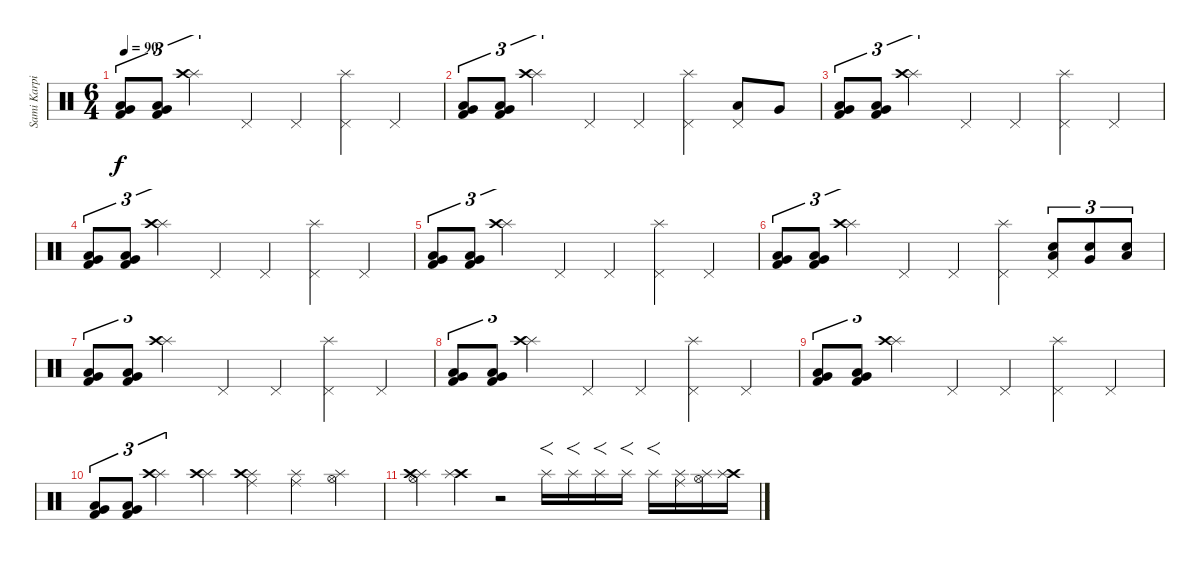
\track ("Sami Karpinnen" "Sami Karpi") {instrument percussion}
\staff {score}
\articulation defaults
\ts (6 4)
\tempo 90
\clef neutral
\ks c
("Very Low Tom (hit)" "Low Floor Tom (hit)" "Kick (hit) 2").8{tu (3 2) dy f} ("Very Low Tom (hit)" "Low Floor Tom (hit)" "Kick (hit) 2").8{tu (3 2)} ("Splash (hit)" "Crash high (hit)").2{tu (3 2)} "Pedal Hi-Hat (hit)".4 "Pedal Hi-Hat (hit)".4 ("Splash (hit)" "Pedal Hi-Hat (hit)").4 "Pedal Hi-Hat (hit)".4 |
("Very Low Tom (hit)" "Low Floor Tom (hit)" "Kick (hit) 2").8{tu (3 2)} ("Very Low Tom (hit)" "Low Floor Tom (hit)" "Kick (hit) 2").8{tu (3 2)} ("Splash (hit)" "Crash high (hit)").2{tu (3 2)} "Pedal Hi-Hat (hit)".4 "Pedal Hi-Hat (hit)".4 ("Splash (hit)" "Pedal Hi-Hat (hit)").4 ("Pedal Hi-Hat (hit)" "Low Tom (hit)").8 "Very Low Tom (hit)".8 |
("Very Low Tom (hit)" "Low Floor Tom (hit)" "Kick (hit) 2").8{tu (3 2)} ("Very Low Tom (hit)" "Low Floor Tom (hit)" "Kick (hit) 2").8{tu (3 2)} ("Splash (hit)" "Crash high (hit)").2{tu (3 2)} "Pedal Hi-Hat (hit)".4 "Pedal Hi-Hat (hit)".4 ("Splash (hit)" "Pedal Hi-Hat (hit)").4 "Pedal Hi-Hat (hit)".4 |
("Very Low Tom (hit)" "Low Floor Tom (hit)" "Kick (hit) 2").8{tu (3 2)} ("Very Low Tom (hit)" "Low Floor Tom (hit)" "Kick (hit) 2").8{tu (3 2)} ("Splash (hit)" "Crash high (hit)").2{tu (3 2)} "Pedal Hi-Hat (hit)".4 "Pedal Hi-Hat (hit)".4 ("Splash (hit)" "Pedal Hi-Hat (hit)").4 "Pedal Hi-Hat (hit)".4 |
("Very Low Tom (hit)" "Low Floor Tom (hit)" "Kick (hit) 2").8{tu (3 2)} ("Very Low Tom (hit)" "Low Floor Tom (hit)" "Kick (hit) 2").8{tu (3 2)} ("Splash (hit)" "Crash high (hit)").2{tu (3 2)} "Pedal Hi-Hat (hit)".4 "Pedal Hi-Hat (hit)".4 ("Splash (hit)" "Pedal Hi-Hat (hit)").4 "Pedal Hi-Hat (hit)".4 |
("Very Low Tom (hit)" "Low Floor Tom (hit)" "Kick (hit) 2").8{tu (3 2)} ("Very Low Tom (hit)" "Low Floor Tom (hit)" "Kick (hit) 2").8{tu (3 2)} ("Splash (hit)" "Crash high (hit)").2{tu (3 2)} "Pedal Hi-Hat (hit)".4 "Pedal Hi-Hat (hit)".4 ("Splash (hit)" "Pedal Hi-Hat (hit)").4 ("Low Tom (hit)" "Pedal Hi-Hat (hit)" "Snare (hit) 2").8{tu (3 2)} ("Very Low Tom (hit)" "Snare (hit) 2").8{tu (3 2)} ("Low Floor Tom (hit)" "Snare (hit) 2").8{tu (3 2)} |
("Very Low Tom (hit)" "Low Floor Tom (hit)" "Kick (hit) 2").8{tu (3 2)} ("Very Low Tom (hit)" "Low Floor Tom (hit)" "Kick (hit) 2").8{tu (3 2)} ("Splash (hit)" "Crash high (hit)").2{tu (3 2)} "Pedal Hi-Hat (hit)".4 "Pedal Hi-Hat (hit)".4 ("Splash (hit)" "Pedal Hi-Hat (hit)").4 "Pedal Hi-Hat (hit)".4 |
("Very Low Tom (hit)" "Low Floor Tom (hit)" "Kick (hit) 2").8{tu (3 2)} ("Very Low Tom (hit)" "Low Floor Tom (hit)" "Kick (hit) 2").8{tu (3 2)} ("Splash (hit)" "Crash high (hit)").2{tu (3 2)} "Pedal Hi-Hat (hit)".4 "Pedal Hi-Hat (hit)".4 ("Splash (hit)" "Pedal Hi-Hat (hit)").4 "Pedal Hi-Hat (hit)".4 |
("Very Low Tom (hit)" "Low Floor Tom (hit)" "Kick (hit) 2").8{tu (3 2)} ("Very Low Tom (hit)" "Low Floor Tom (hit)" "Kick (hit) 2").8{tu (3 2)} ("Splash (hit)" "Crash high (hit)").2{tu (3 2)} "Pedal Hi-Hat (hit)".4 "Pedal Hi-Hat (hit)".4 ("Splash (hit)" "Pedal Hi-Hat (hit)").4 "Pedal Hi-Hat (hit)".4 |
("Very Low Tom (hit)" "Low Floor Tom (hit)" "Kick (hit) 2").8{tu (3 2)} ("Very Low Tom (hit)" "Low Floor Tom (hit)" "Kick (hit) 2").8{tu (3 2)} ("Splash (hit)" "Crash high (hit)").2{tu (3 2)} ("Splash (hit)" "Crash high (hit)").4 ("Splash (hit)" "Ride (middle)" "Crash high (hit)").4 ("Splash (hit)" "Ride (middle)").4 ("Splash (hit)" "Hi-Hat (open)").4 |
("Splash (hit)" "Hi-Hat (open)" "Crash high (hit)").4 ("Crash high (hit)" "Splash (hit)").4 r.2 "Splash (hit)".16{f} "Splash (hit)".16{f} "Splash (hit)".16{f} "Splash (hit)".16{f} "Splash (hit)".16{f} ("Ride (middle)" "Splash (hit)").16 ("Hi-Hat (open)" "Splash (hit)").16 ("Crash high (hit)" "Splash (hit)").16
